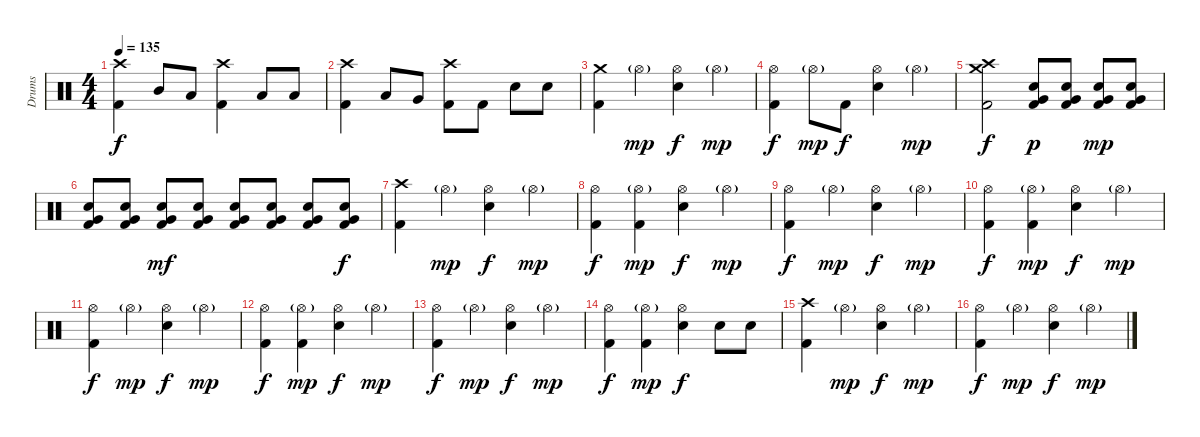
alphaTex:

\track ("Drums" "Drums") {instrument percussion}
\staff {score}
\articulation defaults
\ts (4 4)
\tempo 135
\clef neutral
\ks c
("Crash high (hit)" "Kick (hit) 2").4{dy f} "Mid Tom (hit)".8 "Low Tom (hit)".8 ("Crash high (hit)" "Kick (hit) 2").4 "Low Tom (hit)".8 "Low Tom (hit)".8 |
("Crash high (hit)" "Kick (hit) 2").4 "Low Tom (hit)".8 "Very Low Tom (hit)".8 ("Crash high (hit)" "Kick (hit) 2").8 "Kick (hit) 2".8 "Snare (hit) 2".8 "Snare (hit) 2".8 |
("Crash medium (hit)" "Kick (hit) 2").4 "Hi-Hat (open)"{g}.4{dy mp} ("Hi-Hat (open)" "Snare (hit) 2").4{dy f} "Hi-Hat (open)"{g}.4{dy mp} |
("Hi-Hat (open)" "Kick (hit) 2").4{dy f} "Hi-Hat (open)"{g}.8{dy mp} "Kick (hit) 2".8{dy f} ("Hi-Hat (open)" "Snare (hit) 2").4 "Hi-Hat (open)"{g}.4{dy mp} |
("Crash high (hit)" "Crash medium (hit)" "Kick (hit) 2").2{dy f} ("Snare (hit) 2" "Very Low Tom (hit)" "Kick (hit) 2").8{dy p} ("Snare (hit) 2" "Very Low Tom (hit)" "Kick (hit) 2").8 ("Snare (hit) 2" "Very Low Tom (hit)" "Kick (hit) 2").8{dy mp} ("Snare (hit) 2" "Very Low Tom (hit)" "Kick (hit) 2").8 |
("Snare (hit) 2" "Very Low Tom (hit)" "Kick (hit) 2").8 ("Snare (hit) 2" "Very Low Tom (hit)" "Kick (hit) 2").8 ("Snare (hit) 2" "Very Low Tom (hit)" "Kick (hit) 2").8{dy mf} ("Snare (hit) 2" "Very Low Tom (hit)" "Kick (hit) 2").8 ("Snare (hit) 2" "Very Low Tom (hit)" "Kick (hit) 2").8 ("Snare (hit) 2" "Very Low Tom (hit)" "Kick (hit) 2").8 ("Snare (hit) 2" "Very Low Tom (hit)" "Kick (hit) 2").8 ("Snare (hit) 2" "Very Low Tom (hit)" "Kick (hit) 2").8{dy f} |
("Crash high (hit)" "Kick (hit) 2").4 "Hi-Hat (open)"{g}.4{dy mp} ("Hi-Hat (open)" "Snare (hit) 2").4{dy f} "Hi-Hat (open)"{g}.4{dy mp} |
("Hi-Hat (open)" "Kick (hit) 2").4{dy f} ("Hi-Hat (open)"{g} "Kick (hit) 2").4{dy mp} ("Hi-Hat (open)" "Snare (hit) 2").4{dy f} "Hi-Hat (open)"{g}.4{dy mp} |
("Hi-Hat (open)" "Kick (hit) 2").4{dy f} "Hi-Hat (open)"{g}.4{dy mp} ("Hi-Hat (open)" "Snare (hit) 2").4{dy f} "Hi-Hat (open)"{g}.4{dy mp} |
("Hi-Hat (open)" "Kick (hit) 2").4{dy f} ("Hi-Hat (open)"{g} "Kick (hit) 2").4{dy mp} ("Hi-Hat (open)" "Snare (hit) 2").4{dy f} "Hi-Hat (open)"{g}.4{dy mp} |
("Hi-Hat (open)" "Kick (hit) 2").4{dy f} "Hi-Hat (open)"{g}.4{dy mp} ("Hi-Hat (open)" "Snare (hit) 2").4{dy f} "Hi-Hat (open)"{g}.4{dy mp} |
("Hi-Hat (open)" "Kick (hit) 2").4{dy f} ("Hi-Hat (open)"{g} "Kick (hit) 2").4{dy mp} ("Hi-Hat (open)" "Snare (hit) 2").4{dy f} "Hi-Hat (open)"{g}.4{dy mp} |
("Hi-Hat (open)" "Kick (hit) 2").4{dy f} "Hi-Hat (open)"{g}.4{dy mp} ("Hi-Hat (open)" "Snare (hit) 2").4{dy f} "Hi-Hat (open)"{g}.4{dy mp} |
("Hi-Hat (open)" "Kick (hit) 2").4{dy f} ("Hi-Hat (open)"{g} "Kick (hit) 2").4{dy mp} ("Hi-Hat (open)" "Snare (hit) 2").4{dy f} "Snare (hit) 2".8 "Snare (hit) 2".8 |
("Crash high (hit)" "Kick (hit) 2").4 "Hi-Hat (open)"{g}.4{dy mp} ("Hi-Hat (open)" "Snare (hit) 2").4{dy f} "Hi-Hat (open)"{g}.4{dy mp} |
("Hi-Hat (open)" "Kick (hit) 2").4{dy f} "Hi-Hat (open)"{g}.4{dy mp} ("Hi-Hat (open)" "Snare (hit) 2").4{dy f} "Hi-Hat (open)"{g}.4{dy mp}
